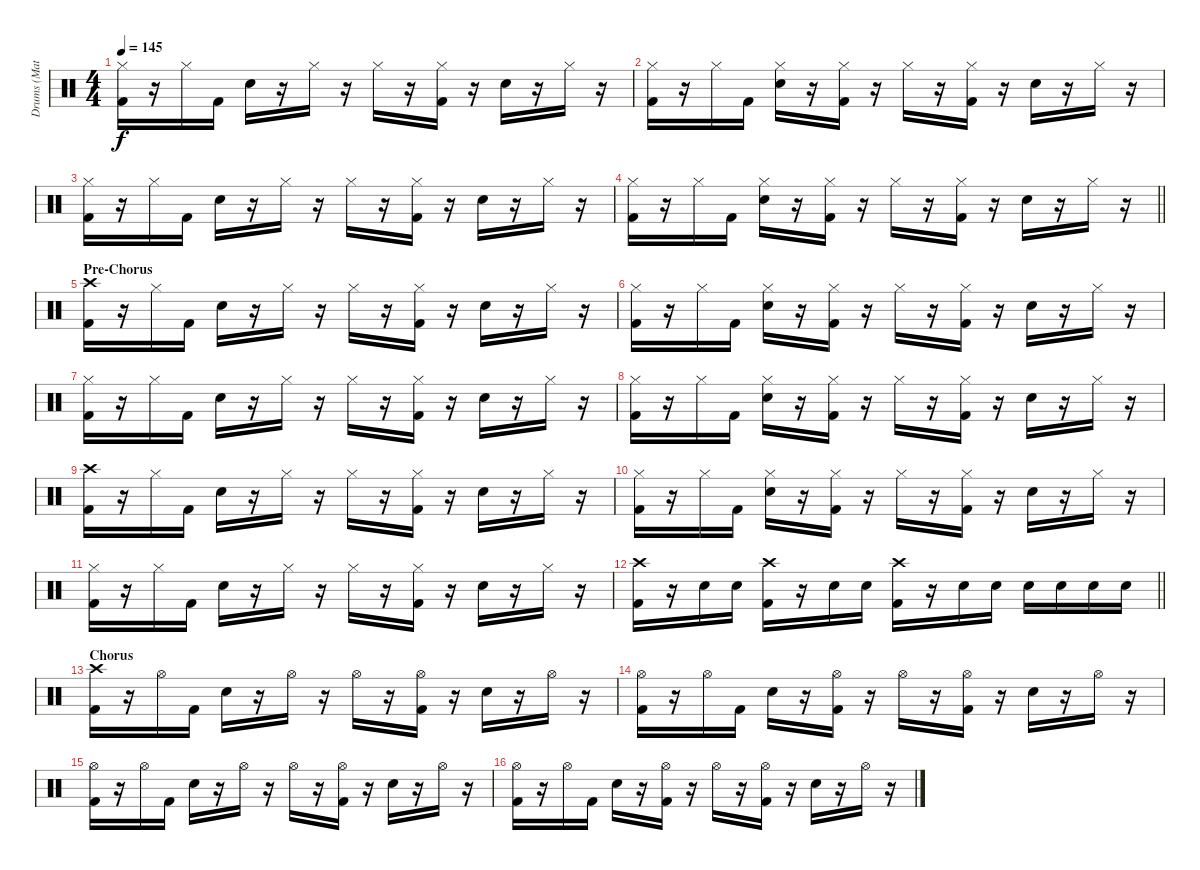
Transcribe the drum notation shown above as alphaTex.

\track ("Drums (Matt)" "Drums (Mat") {instrument percussion}
\staff {score}
\articulation defaults
\ts (4 4)
\tempo 145
\clef neutral
\ks c
("Hi-Hat (closed)" "Kick (hit) 2").16{dy f} r.16 "Hi-Hat (closed)".16 "Kick (hit) 2".16 "Electric Snare (hit)".16 r.16 "Hi-Hat (closed)".16 r.16 "Hi-Hat (closed)".16 r.16 ("Hi-Hat (closed)" "Kick (hit) 2").16 r.16 "Electric Snare (hit)".16 r.16 "Hi-Hat (closed)".16 r.16 |
("Hi-Hat (closed)" "Kick (hit) 2").16 r.16 "Hi-Hat (closed)".16 "Kick (hit) 2".16 ("Hi-Hat (closed)" "Electric Snare (hit)").16 r.16 ("Hi-Hat (closed)" "Kick (hit) 2").16 r.16 "Hi-Hat (closed)".16 r.16 ("Hi-Hat (closed)" "Kick (hit) 2").16 r.16 "Electric Snare (hit)".16 r.16 "Hi-Hat (closed)".16 r.16 |
("Hi-Hat (closed)" "Kick (hit) 2").16 r.16 "Hi-Hat (closed)".16 "Kick (hit) 2".16 "Electric Snare (hit)".16 r.16 "Hi-Hat (closed)".16 r.16 "Hi-Hat (closed)".16 r.16 ("Hi-Hat (closed)" "Kick (hit) 2").16 r.16 "Electric Snare (hit)".16 r.16 "Hi-Hat (closed)".16 r.16 |
\barLineRight lightlight
("Hi-Hat (closed)" "Kick (hit) 2").16 r.16 "Hi-Hat (closed)".16 "Kick (hit) 2".16 ("Hi-Hat (closed)" "Electric Snare (hit)").16 r.16 ("Hi-Hat (closed)" "Kick (hit) 2").16 r.16 "Hi-Hat (closed)".16 r.16 ("Hi-Hat (closed)" "Kick (hit) 2").16 r.16 "Electric Snare (hit)".16 r.16 "Hi-Hat (closed)".16 r.16 |
\section ("" "Pre-Chorus")
("Crash high (hit)" "Kick (hit) 2").16 r.16 "Hi-Hat (closed)".16 "Kick (hit) 2".16 "Electric Snare (hit)".16 r.16 "Hi-Hat (closed)".16 r.16 "Hi-Hat (closed)".16 r.16 ("Hi-Hat (closed)" "Kick (hit) 2").16 r.16 "Electric Snare (hit)".16 r.16 "Hi-Hat (closed)".16 r.16 |
("Hi-Hat (closed)" "Kick (hit) 2").16 r.16 "Hi-Hat (closed)".16 "Kick (hit) 2".16 ("Hi-Hat (closed)" "Electric Snare (hit)").16 r.16 ("Hi-Hat (closed)" "Kick (hit) 2").16 r.16 "Hi-Hat (closed)".16 r.16 ("Hi-Hat (closed)" "Kick (hit) 2").16 r.16 "Electric Snare (hit)".16 r.16 "Hi-Hat (closed)".16 r.16 |
("Hi-Hat (closed)" "Kick (hit) 2").16 r.16 "Hi-Hat (closed)".16 "Kick (hit) 2".16 "Electric Snare (hit)".16 r.16 "Hi-Hat (closed)".16 r.16 "Hi-Hat (closed)".16 r.16 ("Hi-Hat (closed)" "Kick (hit) 2").16 r.16 "Electric Snare (hit)".16 r.16 "Hi-Hat (closed)".16 r.16 |
("Hi-Hat (closed)" "Kick (hit) 2").16 r.16 "Hi-Hat (closed)".16 "Kick (hit) 2".16 ("Hi-Hat (closed)" "Electric Snare (hit)").16 r.16 ("Hi-Hat (closed)" "Kick (hit) 2").16 r.16 "Hi-Hat (closed)".16 r.16 ("Hi-Hat (closed)" "Kick (hit) 2").16 r.16 "Electric Snare (hit)".16 r.16 "Hi-Hat (closed)".16 r.16 |
("Crash high (hit)" "Kick (hit) 2").16 r.16 "Hi-Hat (closed)".16 "Kick (hit) 2".16 "Electric Snare (hit)".16 r.16 "Hi-Hat (closed)".16 r.16 "Hi-Hat (closed)".16 r.16 ("Hi-Hat (closed)" "Kick (hit) 2").16 r.16 "Electric Snare (hit)".16 r.16 "Hi-Hat (closed)".16 r.16 |
("Hi-Hat (closed)" "Kick (hit) 2").16 r.16 "Hi-Hat (closed)".16 "Kick (hit) 2".16 ("Hi-Hat (closed)" "Electric Snare (hit)").16 r.16 ("Hi-Hat (closed)" "Kick (hit) 2").16 r.16 "Hi-Hat (closed)".16 r.16 ("Hi-Hat (closed)" "Kick (hit) 2").16 r.16 "Electric Snare (hit)".16 r.16 "Hi-Hat (closed)".16 r.16 |
("Hi-Hat (closed)" "Kick (hit) 2").16 r.16 "Hi-Hat (closed)".16 "Kick (hit) 2".16 "Electric Snare (hit)".16 r.16 "Hi-Hat (closed)".16 r.16 "Hi-Hat (closed)".16 r.16 ("Hi-Hat (closed)" "Kick (hit) 2").16 r.16 "Electric Snare (hit)".16 r.16 "Hi-Hat (closed)".16 r.16 |
\barLineRight lightlight
("Crash high (hit)" "Kick (hit) 2").16 r.16 "Snare (hit) 2".16 "Snare (hit) 2".16 ("Crash high (hit)" "Kick (hit) 2").16 r.16 "Snare (hit) 2".16 "Snare (hit) 2".16 ("Crash high (hit)" "Kick (hit) 2").16 r.16 "Snare (hit) 2".16 "Snare (hit) 2".16 "Snare (hit) 2".16 "Snare (hit) 2".16 "Snare (hit) 2".16 "Snare (hit) 2".16 |
\section ("" "Chorus")
("Crash high (hit)" "Kick (hit) 2").16 r.16 "Hi-Hat (open)".16 "Kick (hit) 2".16 "Electric Snare (hit)".16 r.16 "Hi-Hat (open)".16 r.16 "Hi-Hat (open)".16 r.16 ("Hi-Hat (open)" "Kick (hit) 2").16 r.16 "Electric Snare (hit)".16 r.16 "Hi-Hat (open)".16 r.16 |
("Hi-Hat (open)" "Kick (hit) 2").16 r.16 "Hi-Hat (open)".16 "Kick (hit) 2".16 "Electric Snare (hit)".16 r.16 ("Hi-Hat (open)" "Kick (hit) 2").16 r.16 "Hi-Hat (open)".16 r.16 ("Hi-Hat (open)" "Kick (hit) 2").16 r.16 "Electric Snare (hit)".16 r.16 "Hi-Hat (open)".16 r.16 |
("Hi-Hat (open)" "Kick (hit) 2").16 r.16 "Hi-Hat (open)".16 "Kick (hit) 2".16 "Electric Snare (hit)".16 r.16 "Hi-Hat (open)".16 r.16 "Hi-Hat (open)".16 r.16 ("Hi-Hat (open)" "Kick (hit) 2").16 r.16 "Electric Snare (hit)".16 r.16 "Hi-Hat (open)".16 r.16 |
("Hi-Hat (open)" "Kick (hit) 2").16 r.16 "Hi-Hat (open)".16 "Kick (hit) 2".16 "Electric Snare (hit)".16 r.16 ("Hi-Hat (open)" "Kick (hit) 2").16 r.16 "Hi-Hat (open)".16 r.16 ("Hi-Hat (open)" "Kick (hit) 2").16 r.16 "Electric Snare (hit)".16 r.16 "Hi-Hat (open)".16 r.16
